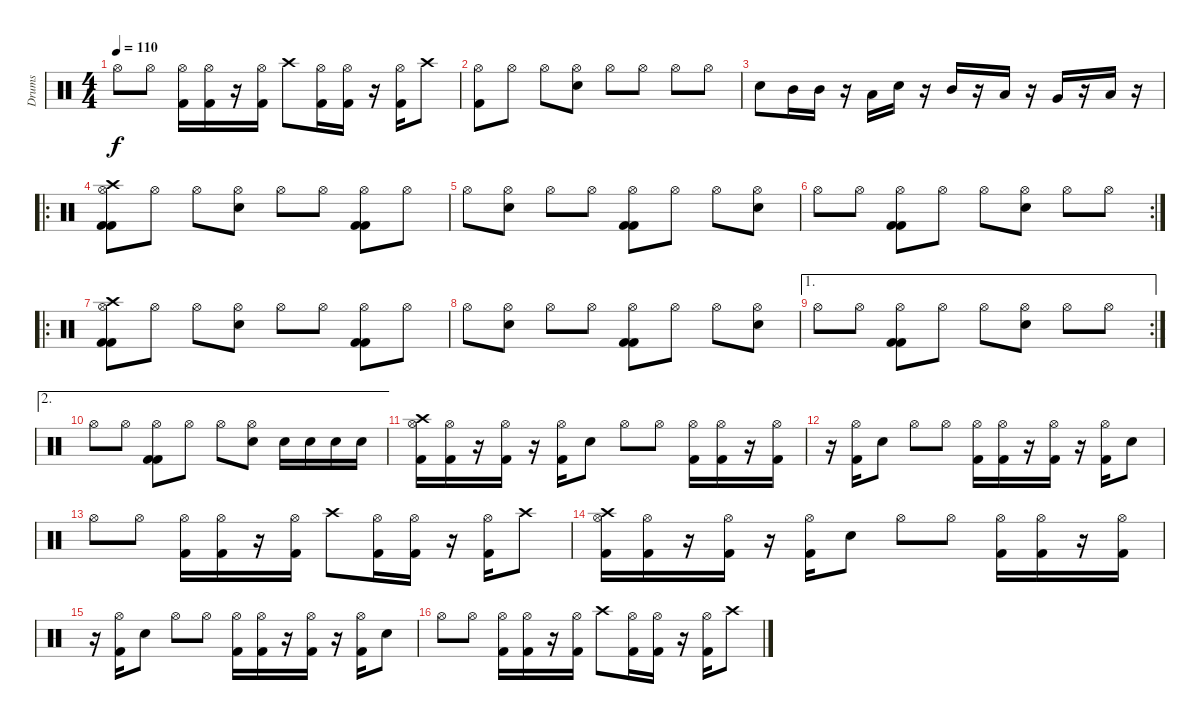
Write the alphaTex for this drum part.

\track ("Drums" "Drums") {instrument percussion}
\staff {score}
\articulation defaults
\ts (4 4)
\tempo 110
\clef neutral
\ks c "Hi-Hat (open)".8{dy f} "Hi-Hat (open)".8
("Hi-Hat (open)" "Kick (hit) 2").16 ("Hi-Hat (open)" "Kick (hit) 2").16 r.16 ("Hi-Hat (open)" "Kick (hit) 2").16 "Crash high (hit)".8 ("Hi-Hat (open)" "Kick (hit) 2").16 ("Hi-Hat (open)" "Kick (hit) 2").16 r.16 ("Hi-Hat (open)" "Kick (hit) 2").16 "Crash high (hit)".8 |
("Hi-Hat (open)" "Kick (hit) 2").8 "Hi-Hat (open)".8 "Hi-Hat (open)".8 ("Hi-Hat (open)" "Electric Snare (hit)").8 "Hi-Hat (open)".8 "Hi-Hat (open)".8 "Hi-Hat (open)".8 "Hi-Hat (open)".8 |
"Electric Snare (hit)".8 "Mid Tom (hit)".16 "Mid Tom (hit)".16 r.16 "Low Tom (hit)".16 "Electric Snare (hit)".16 r.16 "Mid Tom (hit)".16 r.16 "Low Tom (hit)".16 r.16 "Very Low Tom (hit)".16 r.16 "Low Floor Tom (hit)".16 r.16 |
\ro
("Crash high (hit)" "Hi-Hat (open)" "Kick (hit) 2" "Kick (hit) 2").8 "Hi-Hat (open)".8 "Hi-Hat (open)".8 ("Hi-Hat (open)" "Electric Snare (hit)").8 "Hi-Hat (open)".8 "Hi-Hat (open)".8 ("Hi-Hat (open)" "Kick (hit) 2" "Kick (hit) 2").8 "Hi-Hat (open)".8 |
"Hi-Hat (open)".8 ("Hi-Hat (open)" "Electric Snare (hit)").8 "Hi-Hat (open)".8 "Hi-Hat (open)".8 ("Hi-Hat (open)" "Kick (hit) 2" "Kick (hit) 2").8 "Hi-Hat (open)".8 "Hi-Hat (open)".8 ("Hi-Hat (open)" "Electric Snare (hit)").8 |
\rc 2 "Hi-Hat (open)".8 "Hi-Hat (open)".8
("Hi-Hat (open)" "Kick (hit) 2" "Kick (hit) 2").8 "Hi-Hat (open)".8 "Hi-Hat (open)".8 ("Hi-Hat (open)" "Electric Snare (hit)").8 "Hi-Hat (open)".8 "Hi-Hat (open)".8 |
\ro
("Crash high (hit)" "Hi-Hat (open)" "Kick (hit) 2" "Kick (hit) 2").8 "Hi-Hat (open)".8 "Hi-Hat (open)".8 ("Hi-Hat (open)" "Electric Snare (hit)").8 "Hi-Hat (open)".8 "Hi-Hat (open)".8 ("Hi-Hat (open)" "Kick (hit) 2" "Kick (hit) 2").8 "Hi-Hat (open)".8 |
"Hi-Hat (open)".8 ("Hi-Hat (open)" "Electric Snare (hit)").8 "Hi-Hat (open)".8 "Hi-Hat (open)".8 ("Hi-Hat (open)" "Kick (hit) 2" "Kick (hit) 2").8 "Hi-Hat (open)".8 "Hi-Hat (open)".8 ("Hi-Hat (open)" "Electric Snare (hit)").8 |
\ae 1
\rc 2 "Hi-Hat (open)".8 "Hi-Hat (open)".8
("Hi-Hat (open)" "Kick (hit) 2" "Kick (hit) 2").8 "Hi-Hat (open)".8 "Hi-Hat (open)".8 ("Hi-Hat (open)" "Electric Snare (hit)").8 "Hi-Hat (open)".8 "Hi-Hat (open)".8 |
\ae 2 "Hi-Hat (open)".8 "Hi-Hat (open)".8
("Hi-Hat (open)" "Kick (hit) 2" "Kick (hit) 2").8 "Hi-Hat (open)".8 "Hi-Hat (open)".8 ("Hi-Hat (open)" "Electric Snare (hit)").8 "Electric Snare (hit)".16 "Electric Snare (hit)".16 "Electric Snare (hit)".16 "Electric Snare (hit)".16 |
("Crash high (hit)" "Hi-Hat (open)" "Kick (hit) 2").16 ("Hi-Hat (open)" "Kick (hit) 2").16 r.16 ("Hi-Hat (open)" "Kick (hit) 2").16 r.16 ("Hi-Hat (open)" "Kick (hit) 2").16 "Electric Snare (hit)".8 "Hi-Hat (open)".8 "Hi-Hat (open)".8 ("Hi-Hat (open)" "Kick (hit) 2").16 ("Hi-Hat (open)" "Kick (hit) 2").16 r.16 ("Hi-Hat (open)" "Kick (hit) 2").16 |
r.16 ("Hi-Hat (open)" "Kick (hit) 2").16 "Electric Snare (hit)".8 "Hi-Hat (open)".8 "Hi-Hat (open)".8 ("Hi-Hat (open)" "Kick (hit) 2").16 ("Hi-Hat (open)" "Kick (hit) 2").16 r.16 ("Hi-Hat (open)" "Kick (hit) 2").16 r.16 ("Hi-Hat (open)" "Kick (hit) 2").16 "Electric Snare (hit)".8 |
"Hi-Hat (open)".8 "Hi-Hat (open)".8 ("Hi-Hat (open)" "Kick (hit) 2").16 ("Hi-Hat (open)" "Kick (hit) 2").16 r.16 ("Hi-Hat (open)" "Kick (hit) 2").16 "Crash high (hit)".8 ("Hi-Hat (open)" "Kick (hit) 2").16 ("Hi-Hat (open)" "Kick (hit) 2").16 r.16 ("Hi-Hat (open)" "Kick (hit) 2").16 "Crash high (hit)".8 |
("Crash high (hit)" "Hi-Hat (open)" "Kick (hit) 2").16 ("Hi-Hat (open)" "Kick (hit) 2").16 r.16 ("Hi-Hat (open)" "Kick (hit) 2").16 r.16 ("Hi-Hat (open)" "Kick (hit) 2").16 "Electric Snare (hit)".8 "Hi-Hat (open)".8 "Hi-Hat (open)".8 ("Hi-Hat (open)" "Kick (hit) 2").16 ("Hi-Hat (open)" "Kick (hit) 2").16 r.16 ("Hi-Hat (open)" "Kick (hit) 2").16 |
r.16 ("Hi-Hat (open)" "Kick (hit) 2").16 "Electric Snare (hit)".8 "Hi-Hat (open)".8 "Hi-Hat (open)".8 ("Hi-Hat (open)" "Kick (hit) 2").16 ("Hi-Hat (open)" "Kick (hit) 2").16 r.16 ("Hi-Hat (open)" "Kick (hit) 2").16 r.16 ("Hi-Hat (open)" "Kick (hit) 2").16 "Electric Snare (hit)".8 |
"Hi-Hat (open)".8 "Hi-Hat (open)".8 ("Hi-Hat (open)" "Kick (hit) 2").16 ("Hi-Hat (open)" "Kick (hit) 2").16 r.16 ("Hi-Hat (open)" "Kick (hit) 2").16 "Crash high (hit)".8 ("Hi-Hat (open)" "Kick (hit) 2").16 ("Hi-Hat (open)" "Kick (hit) 2").16 r.16 ("Hi-Hat (open)" "Kick (hit) 2").16 "Crash high (hit)".8
